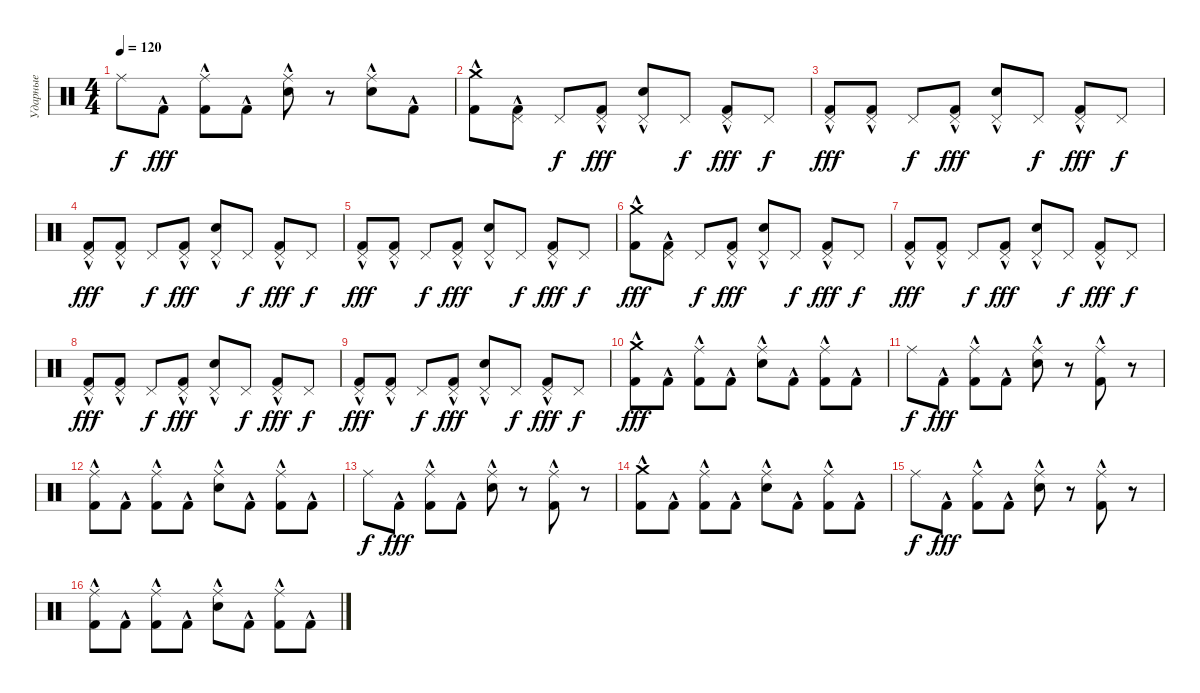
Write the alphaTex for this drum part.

\track ("Ударные" "Ударные") {instrument percussion}
\staff
\articulation defaults
\ts (4 4)
\tempo 120
\clef neutral
\ks c "Ride (middle)".8{dy f} "Kick (hit) 2"{hac}.8{dy fff}
("Ride (middle)" "Kick (hit) 2"{hac}).8 "Kick (hit) 2"{hac}.8 ("Ride (middle)" "Snare (hit) 2"{hac}).8 r.8 ("Ride (middle)" "Snare (hit) 2"{hac}).8 "Kick (hit) 2"{hac}.8 |
("Crash medium (hit)" "Kick (hit) 2"{hac}).8 ("Pedal Hi-Hat (hit)" "Kick (hit) 2"{hac}).8 "Pedal Hi-Hat (hit)".8{dy f} ("Pedal Hi-Hat (hit)" "Kick (hit) 2"{hac}).8{dy fff} ("Pedal Hi-Hat (hit)" "Snare (hit) 2"{hac}).8 "Pedal Hi-Hat (hit)".8{dy f} ("Pedal Hi-Hat (hit)" "Kick (hit) 2"{hac}).8{dy fff} "Pedal Hi-Hat (hit)".8{dy f} |
("Pedal Hi-Hat (hit)" "Kick (hit) 2"{hac}).8{dy fff} ("Pedal Hi-Hat (hit)" "Kick (hit) 2"{hac}).8 "Pedal Hi-Hat (hit)".8{dy f} ("Pedal Hi-Hat (hit)" "Kick (hit) 2"{hac}).8{dy fff} ("Pedal Hi-Hat (hit)" "Snare (hit) 2"{hac}).8 "Pedal Hi-Hat (hit)".8{dy f} ("Pedal Hi-Hat (hit)" "Kick (hit) 2"{hac}).8{dy fff} "Pedal Hi-Hat (hit)".8{dy f} |
("Pedal Hi-Hat (hit)" "Kick (hit) 2"{hac}).8{dy fff} ("Pedal Hi-Hat (hit)" "Kick (hit) 2"{hac}).8 "Pedal Hi-Hat (hit)".8{dy f} ("Pedal Hi-Hat (hit)" "Kick (hit) 2"{hac}).8{dy fff} ("Pedal Hi-Hat (hit)" "Snare (hit) 2"{hac}).8 "Pedal Hi-Hat (hit)".8{dy f} ("Pedal Hi-Hat (hit)" "Kick (hit) 2"{hac}).8{dy fff} "Pedal Hi-Hat (hit)".8{dy f} |
("Pedal Hi-Hat (hit)" "Kick (hit) 2"{hac}).8{dy fff} ("Pedal Hi-Hat (hit)" "Kick (hit) 2"{hac}).8 "Pedal Hi-Hat (hit)".8{dy f} ("Pedal Hi-Hat (hit)" "Kick (hit) 2"{hac}).8{dy fff} ("Pedal Hi-Hat (hit)" "Snare (hit) 2"{hac}).8 "Pedal Hi-Hat (hit)".8{dy f} ("Pedal Hi-Hat (hit)" "Kick (hit) 2"{hac}).8{dy fff} "Pedal Hi-Hat (hit)".8{dy f} |
("Crash medium (hit)" "Kick (hit) 2"{hac}).8{dy fff} ("Pedal Hi-Hat (hit)" "Kick (hit) 2"{hac}).8 "Pedal Hi-Hat (hit)".8{dy f} ("Pedal Hi-Hat (hit)" "Kick (hit) 2"{hac}).8{dy fff} ("Pedal Hi-Hat (hit)" "Snare (hit) 2"{hac}).8 "Pedal Hi-Hat (hit)".8{dy f} ("Pedal Hi-Hat (hit)" "Kick (hit) 2"{hac}).8{dy fff} "Pedal Hi-Hat (hit)".8{dy f} |
("Pedal Hi-Hat (hit)" "Kick (hit) 2"{hac}).8{dy fff} ("Pedal Hi-Hat (hit)" "Kick (hit) 2"{hac}).8 "Pedal Hi-Hat (hit)".8{dy f} ("Pedal Hi-Hat (hit)" "Kick (hit) 2"{hac}).8{dy fff} ("Pedal Hi-Hat (hit)" "Snare (hit) 2"{hac}).8 "Pedal Hi-Hat (hit)".8{dy f} ("Pedal Hi-Hat (hit)" "Kick (hit) 2"{hac}).8{dy fff} "Pedal Hi-Hat (hit)".8{dy f} |
("Pedal Hi-Hat (hit)" "Kick (hit) 2"{hac}).8{dy fff} ("Pedal Hi-Hat (hit)" "Kick (hit) 2"{hac}).8 "Pedal Hi-Hat (hit)".8{dy f} ("Pedal Hi-Hat (hit)" "Kick (hit) 2"{hac}).8{dy fff} ("Pedal Hi-Hat (hit)" "Snare (hit) 2"{hac}).8 "Pedal Hi-Hat (hit)".8{dy f} ("Pedal Hi-Hat (hit)" "Kick (hit) 2"{hac}).8{dy fff} "Pedal Hi-Hat (hit)".8{dy f} |
("Pedal Hi-Hat (hit)" "Kick (hit) 2"{hac}).8{dy fff} ("Pedal Hi-Hat (hit)" "Kick (hit) 2"{hac}).8 "Pedal Hi-Hat (hit)".8{dy f} ("Pedal Hi-Hat (hit)" "Kick (hit) 2"{hac}).8{dy fff} ("Pedal Hi-Hat (hit)" "Snare (hit) 2"{hac}).8 "Pedal Hi-Hat (hit)".8{dy f} ("Pedal Hi-Hat (hit)" "Kick (hit) 2"{hac}).8{dy fff} "Pedal Hi-Hat (hit)".8{dy f} |
("Crash medium (hit)" "Kick (hit) 2"{hac}).8{dy fff} "Kick (hit) 2"{hac}.8 ("Ride (middle)" "Kick (hit) 2"{hac}).8 "Kick (hit) 2"{hac}.8 ("Ride (middle)" "Snare (hit) 2"{hac}).8 "Kick (hit) 2"{hac}.8 ("Ride (middle)" "Kick (hit) 2"{hac}).8 "Kick (hit) 2"{hac}.8 |
"Ride (middle)".8{dy f} "Kick (hit) 2"{hac}.8{dy fff} ("Ride (middle)" "Kick (hit) 2"{hac}).8 "Kick (hit) 2"{hac}.8 ("Ride (middle)" "Snare (hit) 2"{hac}).8 r.8 ("Ride (middle)" "Kick (hit) 2"{hac}).8 r.8 |
("Ride (middle)" "Kick (hit) 2"{hac}).8 "Kick (hit) 2"{hac}.8 ("Ride (middle)" "Kick (hit) 2"{hac}).8 "Kick (hit) 2"{hac}.8 ("Ride (middle)" "Snare (hit) 2"{hac}).8 "Kick (hit) 2"{hac}.8 ("Ride (middle)" "Kick (hit) 2"{hac}).8 "Kick (hit) 2"{hac}.8 |
"Ride (middle)".8{dy f} "Kick (hit) 2"{hac}.8{dy fff} ("Ride (middle)" "Kick (hit) 2"{hac}).8 "Kick (hit) 2"{hac}.8 ("Ride (middle)" "Snare (hit) 2"{hac}).8 r.8 ("Ride (middle)" "Kick (hit) 2"{hac}).8 r.8 |
("Crash medium (hit)" "Kick (hit) 2"{hac}).8 "Kick (hit) 2"{hac}.8 ("Ride (middle)" "Kick (hit) 2"{hac}).8 "Kick (hit) 2"{hac}.8 ("Ride (middle)" "Snare (hit) 2"{hac}).8 "Kick (hit) 2"{hac}.8 ("Ride (middle)" "Kick (hit) 2"{hac}).8 "Kick (hit) 2"{hac}.8 |
"Ride (middle)".8{dy f} "Kick (hit) 2"{hac}.8{dy fff} ("Ride (middle)" "Kick (hit) 2"{hac}).8 "Kick (hit) 2"{hac}.8 ("Ride (middle)" "Snare (hit) 2"{hac}).8 r.8 ("Ride (middle)" "Kick (hit) 2"{hac}).8 r.8 |
("Ride (middle)" "Kick (hit) 2"{hac}).8 "Kick (hit) 2"{hac}.8 ("Ride (middle)" "Kick (hit) 2"{hac}).8 "Kick (hit) 2"{hac}.8 ("Ride (middle)" "Snare (hit) 2"{hac}).8 "Kick (hit) 2"{hac}.8 ("Ride (middle)" "Kick (hit) 2"{hac}).8 "Kick (hit) 2"{hac}.8
